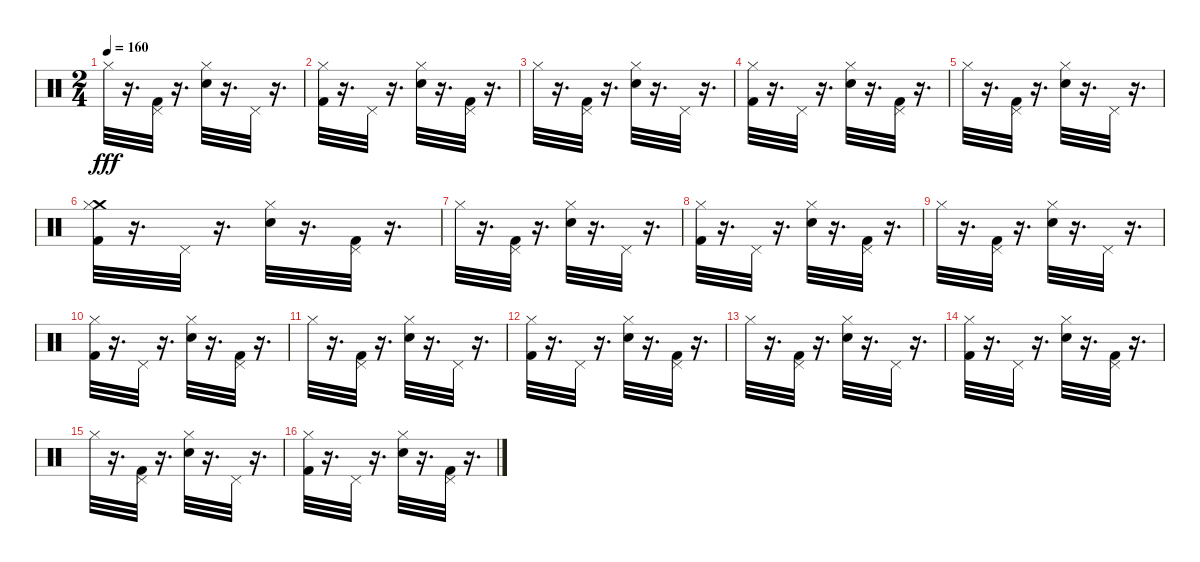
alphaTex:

\track "" {instrument percussion}
\staff {score}
\articulation defaults
\ts (2 4)
\tempo 160
\clef neutral
\ks c "Hi-Hat (closed)".32{dy fff}
r.16{d} ("Pedal Hi-Hat (hit)" "Kick (hit) 2").32 r.16{d} ("Hi-Hat (closed)" "Snare (hit) 2").32 r.16{d} "Pedal Hi-Hat (hit)".32 r.16{d} |
("Hi-Hat (closed)" "Kick (hit) 2").32 r.16{d} "Pedal Hi-Hat (hit)".32 r.16{d} ("Hi-Hat (closed)" "Snare (hit) 2").32 r.16{d} ("Pedal Hi-Hat (hit)" "Kick (hit) 2").32 r.16{d} |
"Hi-Hat (closed)".32 r.16{d} ("Pedal Hi-Hat (hit)" "Kick (hit) 2").32 r.16{d} ("Hi-Hat (closed)" "Snare (hit) 2").32 r.16{d} "Pedal Hi-Hat (hit)".32 r.16{d} |
("Hi-Hat (closed)" "Kick (hit) 2").32 r.16{d} "Pedal Hi-Hat (hit)".32 r.16{d} ("Hi-Hat (closed)" "Snare (hit) 2").32 r.16{d} ("Pedal Hi-Hat (hit)" "Kick (hit) 2").32 r.16{d} |
"Hi-Hat (closed)".32 r.16{d} ("Pedal Hi-Hat (hit)" "Kick (hit) 2").32 r.16{d} ("Hi-Hat (closed)" "Snare (hit) 2").32 r.16{d} "Pedal Hi-Hat (hit)".32 r.16{d} |
("Crash medium (hit)" "Hi-Hat (closed)" "Kick (hit) 2").32 r.16{d} "Pedal Hi-Hat (hit)".32 r.16{d} ("Hi-Hat (closed)" "Snare (hit) 2").32 r.16{d} ("Pedal Hi-Hat (hit)" "Kick (hit) 2").32 r.16{d} |
"Hi-Hat (closed)".32 r.16{d} ("Pedal Hi-Hat (hit)" "Kick (hit) 2").32 r.16{d} ("Hi-Hat (closed)" "Snare (hit) 2").32 r.16{d} "Pedal Hi-Hat (hit)".32 r.16{d} |
("Hi-Hat (closed)" "Kick (hit) 2").32 r.16{d} "Pedal Hi-Hat (hit)".32 r.16{d} ("Hi-Hat (closed)" "Snare (hit) 2").32 r.16{d} ("Pedal Hi-Hat (hit)" "Kick (hit) 2").32 r.16{d} |
"Hi-Hat (closed)".32 r.16{d} ("Pedal Hi-Hat (hit)" "Kick (hit) 2").32 r.16{d} ("Hi-Hat (closed)" "Snare (hit) 2").32 r.16{d} "Pedal Hi-Hat (hit)".32 r.16{d} |
("Hi-Hat (closed)" "Kick (hit) 2").32 r.16{d} "Pedal Hi-Hat (hit)".32 r.16{d} ("Hi-Hat (closed)" "Snare (hit) 2").32 r.16{d} ("Pedal Hi-Hat (hit)" "Kick (hit) 2").32 r.16{d} |
"Hi-Hat (closed)".32 r.16{d} ("Pedal Hi-Hat (hit)" "Kick (hit) 2").32 r.16{d} ("Hi-Hat (closed)" "Snare (hit) 2").32 r.16{d} "Pedal Hi-Hat (hit)".32 r.16{d} |
("Hi-Hat (closed)" "Kick (hit) 2").32 r.16{d} "Pedal Hi-Hat (hit)".32 r.16{d} ("Hi-Hat (closed)" "Snare (hit) 2").32 r.16{d} ("Pedal Hi-Hat (hit)" "Kick (hit) 2").32 r.16{d} |
"Hi-Hat (closed)".32 r.16{d} ("Pedal Hi-Hat (hit)" "Kick (hit) 2").32 r.16{d} ("Hi-Hat (closed)" "Snare (hit) 2").32 r.16{d} "Pedal Hi-Hat (hit)".32 r.16{d} |
("Hi-Hat (closed)" "Kick (hit) 2").32 r.16{d} "Pedal Hi-Hat (hit)".32 r.16{d} ("Hi-Hat (closed)" "Snare (hit) 2").32 r.16{d} ("Pedal Hi-Hat (hit)" "Kick (hit) 2").32 r.16{d} |
"Hi-Hat (closed)".32 r.16{d} ("Pedal Hi-Hat (hit)" "Kick (hit) 2").32 r.16{d} ("Hi-Hat (closed)" "Snare (hit) 2").32 r.16{d} "Pedal Hi-Hat (hit)".32 r.16{d} |
("Hi-Hat (closed)" "Kick (hit) 2").32 r.16{d} "Pedal Hi-Hat (hit)".32 r.16{d} ("Hi-Hat (closed)" "Snare (hit) 2").32 r.16{d} ("Pedal Hi-Hat (hit)" "Kick (hit) 2").32 r.16{d}
